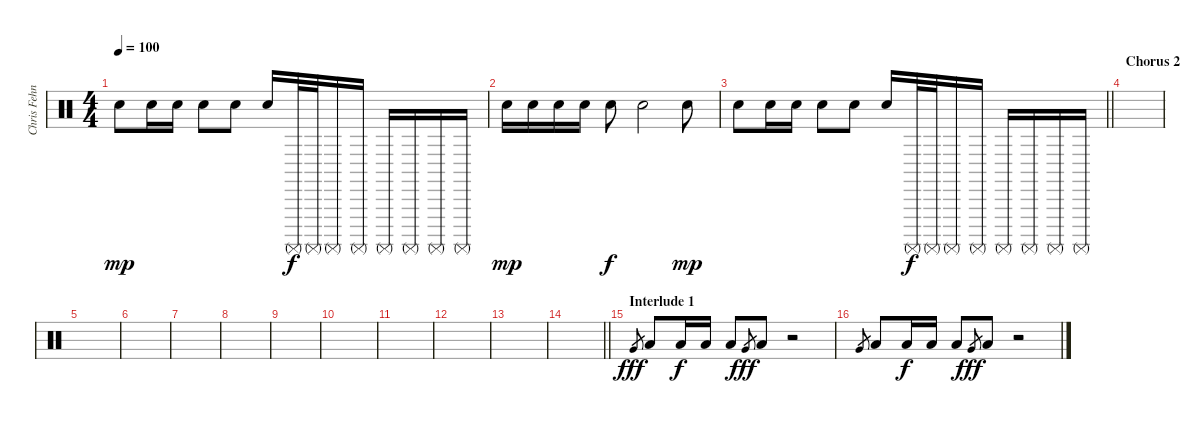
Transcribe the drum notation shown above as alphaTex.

\track ("Chris Fehn" "Chris Fehn") {instrument percussion}
\staff {score}
\articulation defaults
\ts (4 4)
\tempo 100
\clef neutral
\ks c "Snare (hit) 2".8{dy mp} "Snare (hit) 2".16 "Snare (hit) 2".16 "Snare (hit) 2".8 "Snare (hit) 2".8 "Snare (hit) 2".16 "Surdo (mute)".32{dy f} "Surdo (mute)".32 "Surdo (mute)".16 "Surdo (mute)".16 "Surdo (mute)".16 "Surdo (mute)".16 "Surdo (mute)".16 "Surdo (mute)".16
|
"Snare (hit) 2".16{dy mp} "Snare (hit) 2".16 "Snare (hit) 2".16 "Snare (hit) 2".16 "Snare (hit) 2".8{dy f} "Snare (hit) 2".2 "Snare (hit) 2".8{dy mp} |
\barLineRight lightlight "Snare (hit) 2".8 "Snare (hit) 2".16 "Snare (hit) 2".16 "Snare (hit) 2".8 "Snare (hit) 2".8 "Snare (hit) 2".16 "Surdo (mute)".32{dy f} "Surdo (mute)".32 "Surdo (mute)".16 "Surdo (mute)".16 "Surdo (mute)".16 "Surdo (mute)".16 "Surdo (mute)".16 "Surdo (mute)".16
|
\section ("" "Chorus 2")
|
|
|
|
|
|
|
|
|
|
\barLineRight lightlight
|
\section ("" "Interlude 1")
"Very Low Tom (hit)".8{gr dy fff} "Low Floor Tom (hit)".8 "Low Floor Tom (hit)".16{dy f} "Low Floor Tom (hit)".16 "Low Floor Tom (hit)".8 "Very Low Tom (hit)".8{gr dy fff} "Low Floor Tom (hit)".8 r.2 |
"Very Low Tom (hit)".8{gr} "Low Floor Tom (hit)".8 "Low Floor Tom (hit)".16{dy f} "Low Floor Tom (hit)".16 "Low Floor Tom (hit)".8 "Very Low Tom (hit)".8{gr dy fff} "Low Floor Tom (hit)".8 r.2
